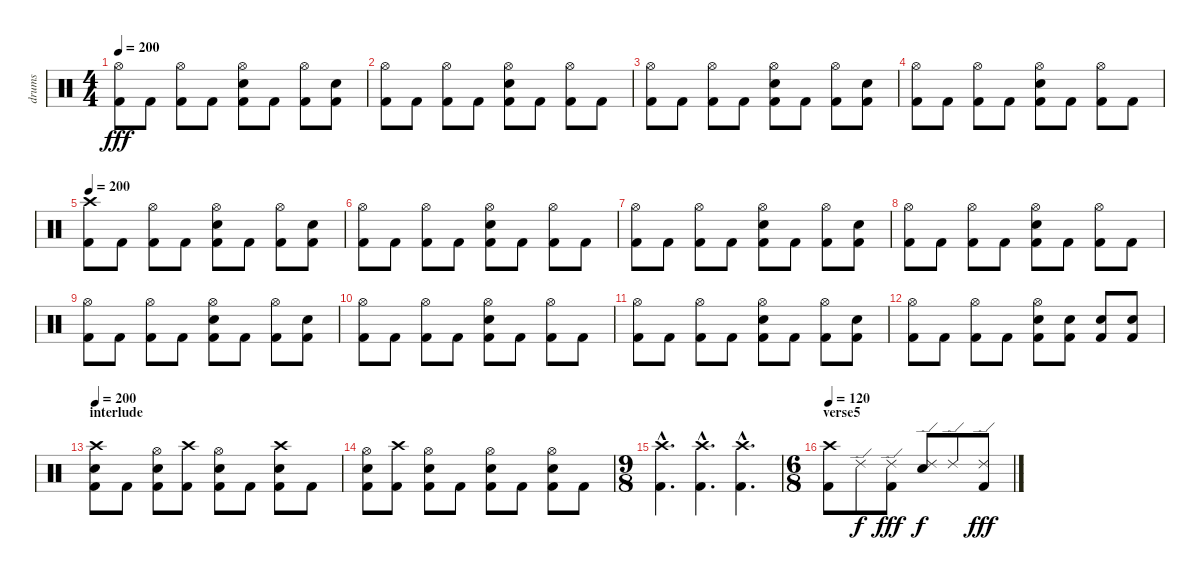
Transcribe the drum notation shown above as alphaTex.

\track ("drums" "drums") {instrument percussion}
\staff {score}
\articulation defaults
\ts (4 4)
\tempo 200
\clef neutral
\ks c
("Hi-Hat (open)" "Kick (hit) 2").8{dy fff} "Kick (hit) 2".8 ("Hi-Hat (open)" "Kick (hit) 2").8 "Kick (hit) 2".8 ("Hi-Hat (open)" "Snare (hit) 2" "Kick (hit) 2").8 "Kick (hit) 2".8 ("Hi-Hat (open)" "Kick (hit) 2").8 ("Snare (hit) 2" "Kick (hit) 2").8 |
("Hi-Hat (open)" "Kick (hit) 2").8 "Kick (hit) 2".8 ("Hi-Hat (open)" "Kick (hit) 2").8 "Kick (hit) 2".8 ("Hi-Hat (open)" "Snare (hit) 2" "Kick (hit) 2").8 "Kick (hit) 2".8 ("Hi-Hat (open)" "Kick (hit) 2").8 "Kick (hit) 2".8 |
("Hi-Hat (open)" "Kick (hit) 2").8 "Kick (hit) 2".8 ("Hi-Hat (open)" "Kick (hit) 2").8 "Kick (hit) 2".8 ("Hi-Hat (open)" "Snare (hit) 2" "Kick (hit) 2").8 "Kick (hit) 2".8 ("Hi-Hat (open)" "Kick (hit) 2").8 ("Snare (hit) 2" "Kick (hit) 2").8 |
("Hi-Hat (open)" "Kick (hit) 2").8 "Kick (hit) 2".8 ("Hi-Hat (open)" "Kick (hit) 2").8 "Kick (hit) 2".8 ("Hi-Hat (open)" "Snare (hit) 2" "Kick (hit) 2").8 "Kick (hit) 2".8 ("Hi-Hat (open)" "Kick (hit) 2").8 "Kick (hit) 2".8 |
\tempo 200
("Crash high (hit)" "Kick (hit) 2").8 "Kick (hit) 2".8 ("Hi-Hat (open)" "Kick (hit) 2").8 "Kick (hit) 2".8 ("Hi-Hat (open)" "Snare (hit) 2" "Kick (hit) 2").8 "Kick (hit) 2".8 ("Hi-Hat (open)" "Kick (hit) 2").8 ("Snare (hit) 2" "Kick (hit) 2").8 |
("Hi-Hat (open)" "Kick (hit) 2").8 "Kick (hit) 2".8 ("Hi-Hat (open)" "Kick (hit) 2").8 "Kick (hit) 2".8 ("Hi-Hat (open)" "Snare (hit) 2" "Kick (hit) 2").8 "Kick (hit) 2".8 ("Hi-Hat (open)" "Kick (hit) 2").8 "Kick (hit) 2".8 |
("Hi-Hat (open)" "Kick (hit) 2").8 "Kick (hit) 2".8 ("Hi-Hat (open)" "Kick (hit) 2").8 "Kick (hit) 2".8 ("Hi-Hat (open)" "Snare (hit) 2" "Kick (hit) 2").8 "Kick (hit) 2".8 ("Hi-Hat (open)" "Kick (hit) 2").8 ("Snare (hit) 2" "Kick (hit) 2").8 |
("Hi-Hat (open)" "Kick (hit) 2").8 "Kick (hit) 2".8 ("Hi-Hat (open)" "Kick (hit) 2").8 "Kick (hit) 2".8 ("Hi-Hat (open)" "Snare (hit) 2" "Kick (hit) 2").8 "Kick (hit) 2".8 ("Hi-Hat (open)" "Kick (hit) 2").8 "Kick (hit) 2".8 |
("Hi-Hat (open)" "Kick (hit) 2").8 "Kick (hit) 2".8 ("Hi-Hat (open)" "Kick (hit) 2").8 "Kick (hit) 2".8 ("Hi-Hat (open)" "Snare (hit) 2" "Kick (hit) 2").8 "Kick (hit) 2".8 ("Hi-Hat (open)" "Kick (hit) 2").8 ("Snare (hit) 2" "Kick (hit) 2").8 |
("Hi-Hat (open)" "Kick (hit) 2").8 "Kick (hit) 2".8 ("Hi-Hat (open)" "Kick (hit) 2").8 "Kick (hit) 2".8 ("Hi-Hat (open)" "Snare (hit) 2" "Kick (hit) 2").8 "Kick (hit) 2".8 ("Hi-Hat (open)" "Kick (hit) 2").8 "Kick (hit) 2".8 |
("Hi-Hat (open)" "Kick (hit) 2").8 "Kick (hit) 2".8 ("Hi-Hat (open)" "Kick (hit) 2").8 "Kick (hit) 2".8 ("Hi-Hat (open)" "Snare (hit) 2" "Kick (hit) 2").8 "Kick (hit) 2".8 ("Hi-Hat (open)" "Kick (hit) 2").8 ("Snare (hit) 2" "Kick (hit) 2").8 |
("Hi-Hat (open)" "Kick (hit) 2").8 "Kick (hit) 2".8 ("Hi-Hat (open)" "Kick (hit) 2").8 "Kick (hit) 2".8 ("Hi-Hat (open)" "Snare (hit) 2" "Kick (hit) 2").8 ("Snare (hit) 2" "Kick (hit) 2").8 ("Snare (hit) 2" "Kick (hit) 2").8 ("Snare (hit) 2" "Kick (hit) 2").8 |
\section ("" "interlude")
\tempo 200
("Crash high (hit)" "Snare (hit) 2" "Kick (hit) 2").8 "Kick (hit) 2".8 ("Hi-Hat (open)" "Snare (hit) 2" "Kick (hit) 2").8 ("Crash high (hit)" "Kick (hit) 2").8 ("Hi-Hat (open)" "Snare (hit) 2" "Kick (hit) 2").8 "Kick (hit) 2".8 ("Crash high (hit)" "Snare (hit) 2" "Kick (hit) 2").8 "Kick (hit) 2".8 |
("Hi-Hat (open)" "Snare (hit) 2" "Kick (hit) 2").8 ("Crash high (hit)" "Kick (hit) 2").8 ("Hi-Hat (open)" "Snare (hit) 2" "Kick (hit) 2").8 "Kick (hit) 2".8 ("Hi-Hat (open)" "Snare (hit) 2" "Kick (hit) 2").8 "Kick (hit) 2".8 ("Hi-Hat (open)" "Snare (hit) 2" "Kick (hit) 2").8 "Kick (hit) 2".8 |
\ts (9 8)
("Crash high (hit)"{hac} "Kick (hit) 2"{hac}).4{d} ("Crash high (hit)"{hac} "Kick (hit) 2"{hac}).4{d} ("Crash high (hit)"{hac} "Kick (hit) 2"{hac}).4{d} |
\ts (6 8)
\section ("" "verse5")
\tempo 120
("Crash high (hit)" "Kick (hit) 2").8 "Ride (edge) 2".8{dy f} ("Ride (edge) 2" "Kick (hit) 2").8{dy fff} ("Ride (edge) 2" "Snare (hit) 2").8{dy f} "Ride (edge) 2".8 ("Ride (edge) 2" "Kick (hit) 2").8{dy fff}
